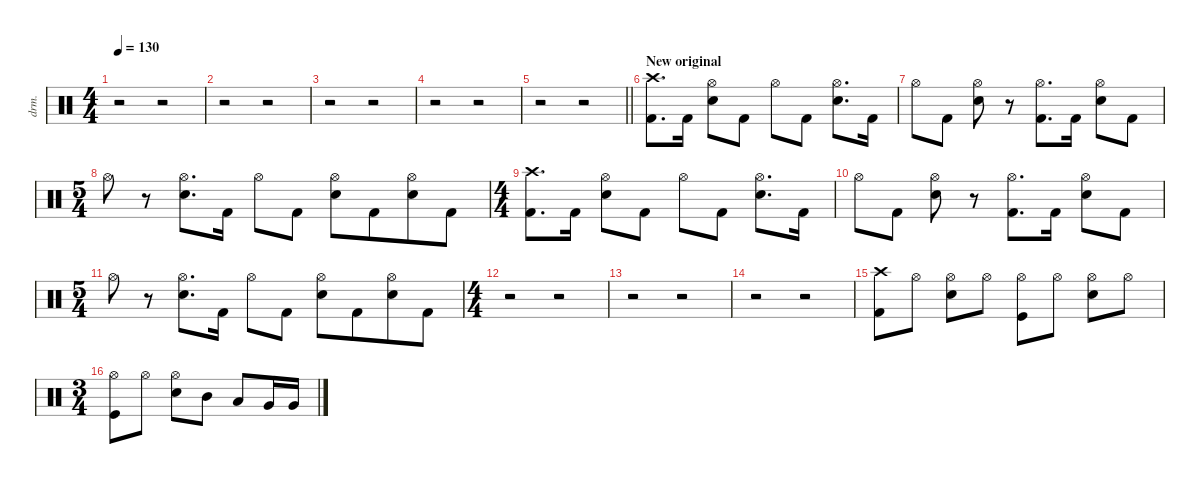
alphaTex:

\defaultSystemsLayout 4
\hideDynamics
\bracketExtendMode nobrackets
\track ("Manouche" "drm.") {instrument percussion}
\staff {score}
\articulation defaults
\ts (4 4)
\tempo 130
\clef neutral
\ks c
r.2{dy ff} r.2 |
r.2 r.2 |
r.2 r.2 |
r.2 r.2 |
\barLineRight lightlight
r.2 r.2 |
\section ("" "New original")
("Crash high (hit)" "Kick (hit) 2").8{d dy f} "Kick (hit) 2".16 ("Hi-Hat (open)" "Snare (hit) 2").8 "Kick (hit) 2".8 "Hi-Hat (open)".8 "Kick (hit) 2".8 ("Hi-Hat (open)" "Snare (hit) 2").8{d} "Kick (hit) 2".16 |
"Hi-Hat (open)".8 "Kick (hit) 2".8 ("Hi-Hat (open)" "Snare (hit) 2").8 r.8 ("Hi-Hat (open)" "Kick (hit) 2").8{d} "Kick (hit) 2".16 ("Hi-Hat (open)" "Snare (hit) 2").8 "Kick (hit) 2".8 |
\ts (5 4)
\beaming (8 2 2 2 4)
"Hi-Hat (open)".8 r.8 ("Hi-Hat (open)" "Snare (hit) 2").8{d} "Kick (hit) 2".16 "Hi-Hat (open)".8 "Kick (hit) 2".8 ("Hi-Hat (open)" "Snare (hit) 2").8 "Kick (hit) 2".8 ("Hi-Hat (open)" "Snare (hit) 2").8 "Kick (hit) 2".8 |
\ts (4 4)
\beaming (8 2 2 2 2)
("Crash high (hit)" "Kick (hit) 2").8{d} "Kick (hit) 2".16 ("Hi-Hat (open)" "Snare (hit) 2").8 "Kick (hit) 2".8 "Hi-Hat (open)".8 "Kick (hit) 2".8 ("Hi-Hat (open)" "Snare (hit) 2").8{d} "Kick (hit) 2".16 |
"Hi-Hat (open)".8 "Kick (hit) 2".8 ("Hi-Hat (open)" "Snare (hit) 2").8 r.8 ("Hi-Hat (open)" "Kick (hit) 2").8{d} "Kick (hit) 2".16 ("Hi-Hat (open)" "Snare (hit) 2").8 "Kick (hit) 2".8 |
\ts (5 4)
\beaming (8 2 2 2 4)
"Hi-Hat (open)".8 r.8 ("Hi-Hat (open)" "Snare (hit) 2").8{d} "Kick (hit) 2".16 "Hi-Hat (open)".8 "Kick (hit) 2".8 ("Hi-Hat (open)" "Snare (hit) 2").8 "Kick (hit) 2".8 ("Hi-Hat (open)" "Snare (hit) 2").8 "Kick (hit) 2".8 |
\ts (4 4)
\beaming (8 2 2 2 2)
r.2 r.2 |
r.2 r.2 |
r.2 r.2 |
("Crash high (hit)" "Kick (hit) 2").8{dy fff} "Hi-Hat (open)".8{dy mp} ("Hi-Hat (open)" "Snare (hit) 2").8{dy f} "Hi-Hat (open)".8{dy mp} ("Hi-Hat (open)" "Kick (hit)").8{dy f} "Hi-Hat (open)".8{dy mp} ("Hi-Hat (open)" "Snare (hit) 2").8{dy f} "Hi-Hat (open)".8{dy mp} |
\ts (3 4)
\beaming (8 2 2 2)
("Hi-Hat (open)" "Kick (hit)").8{dy f} "Hi-Hat (open)".8{dy mp} ("Hi-Hat (open)" "Snare (hit) 2").8{dy f} "Mid Tom (hit)".8 "Low Tom (hit)".8 "Very Low Tom (hit)".16 "Very Low Tom (hit)".16
